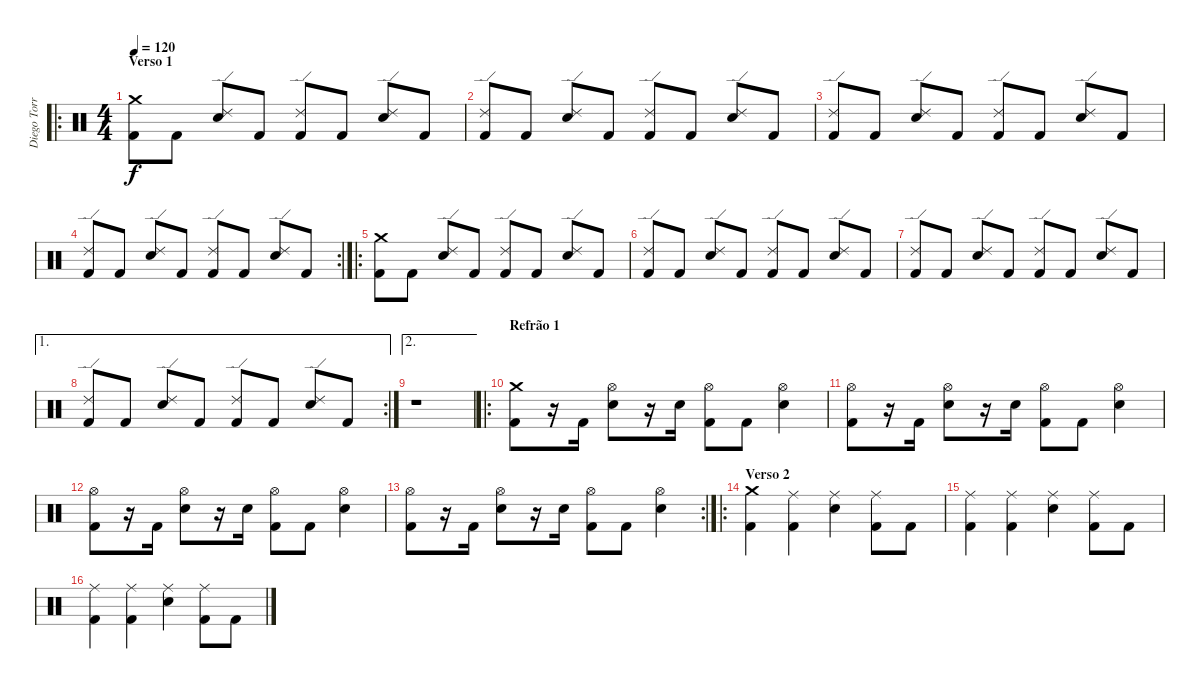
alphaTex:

\track ("Diego Torres [Bateria]" "Diego Torr") {instrument percussion}
\staff {score}
\articulation defaults
\ro
\ts (4 4)
\section ("" "Verso 1")
\tempo 120
\clef neutral
\ks c
("Crash medium (hit)" "Kick (hit) 2").8{dy f} "Kick (hit) 2".8 ("Ride (edge) 2" "Electric Snare (hit)").8 "Kick (hit) 2".8 ("Ride (edge) 2" "Kick (hit) 2").8 "Kick (hit) 2".8 ("Ride (edge) 2" "Electric Snare (hit)").8 "Kick (hit) 2".8 |
("Ride (edge) 2" "Kick (hit) 2").8 "Kick (hit) 2".8 ("Ride (edge) 2" "Electric Snare (hit)").8 "Kick (hit) 2".8 ("Ride (edge) 2" "Kick (hit) 2").8 "Kick (hit) 2".8 ("Ride (edge) 2" "Electric Snare (hit)").8 "Kick (hit) 2".8 |
("Ride (edge) 2" "Kick (hit) 2").8 "Kick (hit) 2".8 ("Ride (edge) 2" "Electric Snare (hit)").8 "Kick (hit) 2".8 ("Ride (edge) 2" "Kick (hit) 2").8 "Kick (hit) 2".8 ("Ride (edge) 2" "Electric Snare (hit)").8 "Kick (hit) 2".8 |
\rc 2
("Ride (edge) 2" "Kick (hit) 2").8 "Kick (hit) 2".8 ("Ride (edge) 2" "Electric Snare (hit)").8 "Kick (hit) 2".8 ("Ride (edge) 2" "Kick (hit) 2").8 "Kick (hit) 2".8 ("Ride (edge) 2" "Electric Snare (hit)").8 "Kick (hit) 2".8 |
\ro
("Crash medium (hit)" "Kick (hit) 2").8 "Kick (hit) 2".8 ("Ride (edge) 2" "Electric Snare (hit)").8 "Kick (hit) 2".8 ("Ride (edge) 2" "Kick (hit) 2").8 "Kick (hit) 2".8 ("Ride (edge) 2" "Electric Snare (hit)").8 "Kick (hit) 2".8 |
("Ride (edge) 2" "Kick (hit) 2").8 "Kick (hit) 2".8 ("Ride (edge) 2" "Electric Snare (hit)").8 "Kick (hit) 2".8 ("Ride (edge) 2" "Kick (hit) 2").8 "Kick (hit) 2".8 ("Ride (edge) 2" "Electric Snare (hit)").8 "Kick (hit) 2".8 |
("Ride (edge) 2" "Kick (hit) 2").8 "Kick (hit) 2".8 ("Ride (edge) 2" "Electric Snare (hit)").8 "Kick (hit) 2".8 ("Ride (edge) 2" "Kick (hit) 2").8 "Kick (hit) 2".8 ("Ride (edge) 2" "Electric Snare (hit)").8 "Kick (hit) 2".8 |
\ae 1
\rc 2
("Ride (edge) 2" "Kick (hit) 2").8 "Kick (hit) 2".8 ("Ride (edge) 2" "Electric Snare (hit)").8 "Kick (hit) 2".8 ("Ride (edge) 2" "Kick (hit) 2").8 "Kick (hit) 2".8 ("Ride (edge) 2" "Electric Snare (hit)").8 "Kick (hit) 2".8 |
\ae 2
r.1 |
\ro
\section ("" "Refrão 1")
("Crash medium (hit)" "Kick (hit) 2").8 r.16 "Kick (hit) 2".16 ("Hi-Hat (open)" "Electric Snare (hit)").8 r.16 "Electric Snare (hit)".16 ("Hi-Hat (open)" "Kick (hit) 2").8 "Kick (hit) 2".8 ("Hi-Hat (open)" "Electric Snare (hit)").4 |
("Hi-Hat (open)" "Kick (hit) 2").8 r.16 "Kick (hit) 2".16 ("Hi-Hat (open)" "Electric Snare (hit)").8 r.16 "Electric Snare (hit)".16 ("Hi-Hat (open)" "Kick (hit) 2").8 "Kick (hit) 2".8 ("Hi-Hat (open)" "Electric Snare (hit)").4 |
("Hi-Hat (open)" "Kick (hit) 2").8 r.16 "Kick (hit) 2".16 ("Hi-Hat (open)" "Electric Snare (hit)").8 r.16 "Electric Snare (hit)".16 ("Hi-Hat (open)" "Kick (hit) 2").8 "Kick (hit) 2".8 ("Hi-Hat (open)" "Electric Snare (hit)").4 |
\rc 2
("Hi-Hat (open)" "Kick (hit) 2").8 r.16 "Kick (hit) 2".16 ("Hi-Hat (open)" "Electric Snare (hit)").8 r.16 "Electric Snare (hit)".16 ("Hi-Hat (open)" "Kick (hit) 2").8 "Kick (hit) 2".8 ("Hi-Hat (open)" "Electric Snare (hit)").4 |
\ro
\section ("" "Verso 2")
("Crash medium (hit)" "Kick (hit) 2").4 ("Ride (middle)" "Kick (hit) 2").4 ("Ride (middle)" "Electric Snare (hit)").4 ("Ride (middle)" "Kick (hit) 2").8 "Kick (hit) 2".8 |
("Ride (middle)" "Kick (hit) 2").4 ("Ride (middle)" "Kick (hit) 2").4 ("Ride (middle)" "Electric Snare (hit)").4 ("Ride (middle)" "Kick (hit) 2").8 "Kick (hit) 2".8 |
("Ride (middle)" "Kick (hit) 2").4 ("Ride (middle)" "Kick (hit) 2").4 ("Ride (middle)" "Electric Snare (hit)").4 ("Ride (middle)" "Kick (hit) 2").8 "Kick (hit) 2".8
